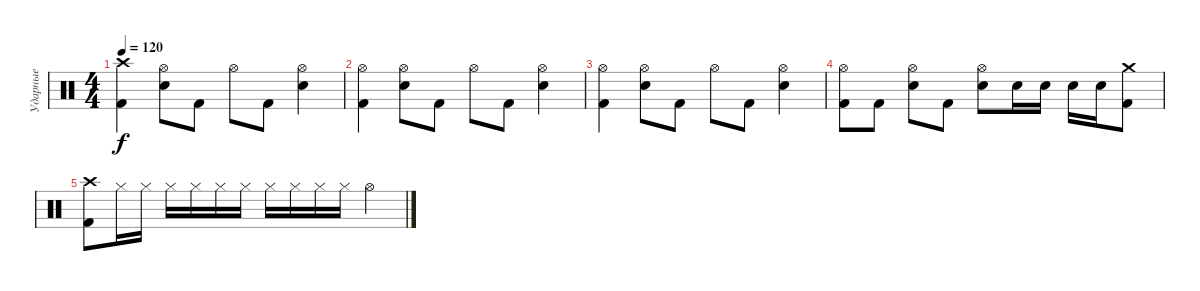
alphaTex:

\track ("Ударные" "Ударные") {instrument percussion}
\staff {score}
\articulation defaults
\ts (4 4)
\tempo 120
\clef neutral
\ks c
("Crash high (hit)" "Kick (hit) 2").4{dy f} ("Hi-Hat (open)" "Electric Snare (hit)").8 "Kick (hit) 2".8 "Hi-Hat (open)".8 "Kick (hit) 2".8 ("Hi-Hat (open)" "Electric Snare (hit)").4 |
("Hi-Hat (open)" "Kick (hit) 2").4 ("Hi-Hat (open)" "Electric Snare (hit)").8 "Kick (hit) 2".8 "Hi-Hat (open)".8 "Kick (hit) 2".8 ("Hi-Hat (open)" "Electric Snare (hit)").4 |
("Hi-Hat (open)" "Kick (hit) 2").4 ("Hi-Hat (open)" "Electric Snare (hit)").8 "Kick (hit) 2".8 "Hi-Hat (open)".8 "Kick (hit) 2".8 ("Hi-Hat (open)" "Electric Snare (hit)").4 |
("Hi-Hat (open)" "Kick (hit) 2").8 "Kick (hit) 2".8 ("Hi-Hat (open)" "Electric Snare (hit)").8 "Kick (hit) 2".8 ("Hi-Hat (open)" "Electric Snare (hit)").8 "Electric Snare (hit)".16 "Electric Snare (hit)".16 "Electric Snare (hit)".16 "Electric Snare (hit)".16 ("Crash medium (hit)" "Kick (hit) 2").8 |
("Crash high (hit)" "Kick (hit) 2").8 "Hi-Hat (closed)".16 "Hi-Hat (closed)".16 "Hi-Hat (closed)".16 "Hi-Hat (closed)".16 "Hi-Hat (closed)".16 "Hi-Hat (closed)".16 "Hi-Hat (closed)".16 "Hi-Hat (closed)".16 "Hi-Hat (closed)".16 "Hi-Hat (closed)".16 "Hi-Hat (open)".4
